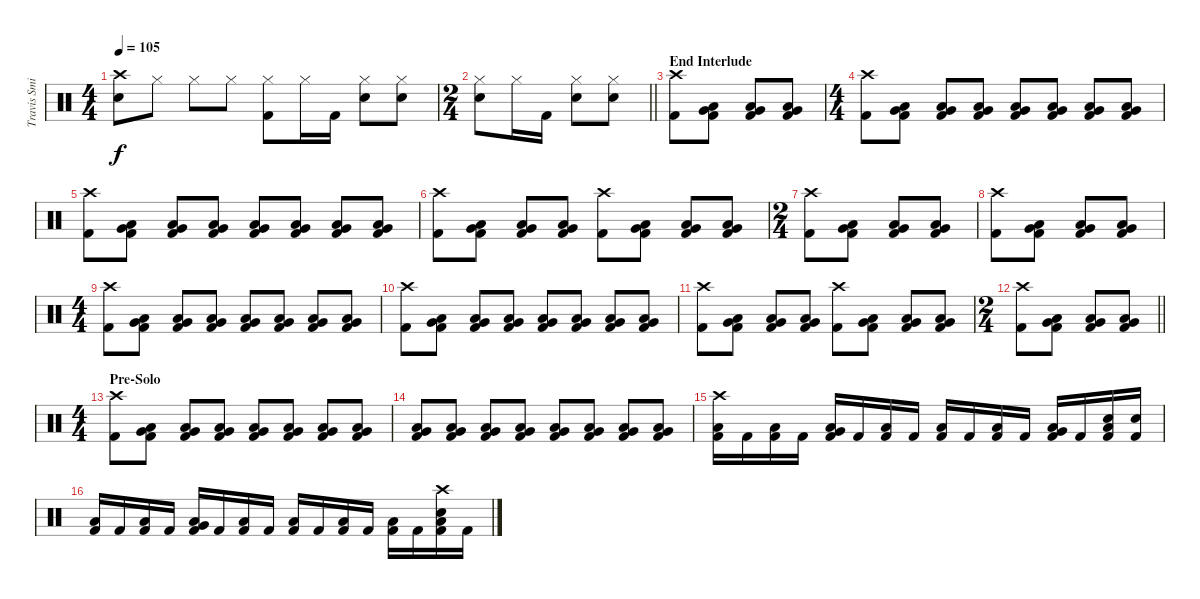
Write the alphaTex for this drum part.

\track ("Travis Smith (Drums)" "Travis Smi") {instrument percussion}
\staff {score}
\articulation defaults
\ts (4 4)
\tempo 105
\clef neutral
\ks c
("Crash high (hit)" "Electric Snare (hit)").8{dy f} "Hi-Hat (closed)".8 "Hi-Hat (closed)".8 "Hi-Hat (closed)".8 ("Hi-Hat (closed)" "Kick (hit) 2").8 "Hi-Hat (closed)".16 "Kick (hit) 2".16 ("Hi-Hat (closed)" "Electric Snare (hit)").8 ("Hi-Hat (closed)" "Electric Snare (hit)").8 |
\ts (2 4)
\barLineRight lightlight
("Hi-Hat (closed)" "Electric Snare (hit)").8 "Hi-Hat (closed)".16 "Kick (hit) 2".16 ("Hi-Hat (closed)" "Electric Snare (hit)").8 ("Hi-Hat (closed)" "Electric Snare (hit)").8 |
\section ("" "End Interlude")
("Crash high (hit)" "Kick (hit) 2").8 ("Low Floor Tom (hit)" "Kick (hit) 2" "Very Low Tom (hit)").8 ("Low Floor Tom (hit)" "Kick (hit) 2" "Very Low Tom (hit)").8 ("Low Floor Tom (hit)" "Kick (hit) 2" "Very Low Tom (hit)").8 |
\ts (4 4)
("Crash high (hit)" "Kick (hit) 2").8 ("Low Floor Tom (hit)" "Kick (hit) 2" "Very Low Tom (hit)").8 ("Low Floor Tom (hit)" "Kick (hit) 2" "Very Low Tom (hit)").8 ("Low Floor Tom (hit)" "Kick (hit) 2" "Very Low Tom (hit)").8 ("Low Floor Tom (hit)" "Kick (hit) 2" "Very Low Tom (hit)").8 ("Low Floor Tom (hit)" "Kick (hit) 2" "Very Low Tom (hit)").8 ("Low Floor Tom (hit)" "Kick (hit) 2" "Very Low Tom (hit)").8 ("Low Floor Tom (hit)" "Kick (hit) 2" "Very Low Tom (hit)").8 |
("Crash high (hit)" "Kick (hit) 2").8 ("Low Floor Tom (hit)" "Kick (hit) 2" "Very Low Tom (hit)").8 ("Low Floor Tom (hit)" "Kick (hit) 2" "Very Low Tom (hit)").8 ("Low Floor Tom (hit)" "Kick (hit) 2" "Very Low Tom (hit)").8 ("Low Floor Tom (hit)" "Kick (hit) 2" "Very Low Tom (hit)").8 ("Low Floor Tom (hit)" "Kick (hit) 2" "Very Low Tom (hit)").8 ("Low Floor Tom (hit)" "Kick (hit) 2" "Very Low Tom (hit)").8 ("Low Floor Tom (hit)" "Kick (hit) 2" "Very Low Tom (hit)").8 |
("Crash high (hit)" "Kick (hit) 2").8 ("Low Floor Tom (hit)" "Kick (hit) 2" "Very Low Tom (hit)").8 ("Low Floor Tom (hit)" "Kick (hit) 2" "Very Low Tom (hit)").8 ("Low Floor Tom (hit)" "Kick (hit) 2" "Very Low Tom (hit)").8 ("Crash high (hit)" "Kick (hit) 2").8 ("Low Floor Tom (hit)" "Kick (hit) 2" "Very Low Tom (hit)").8 ("Low Floor Tom (hit)" "Kick (hit) 2" "Very Low Tom (hit)").8 ("Low Floor Tom (hit)" "Kick (hit) 2" "Very Low Tom (hit)").8 |
\ts (2 4)
("Crash high (hit)" "Kick (hit) 2").8 ("Low Floor Tom (hit)" "Kick (hit) 2" "Very Low Tom (hit)").8 ("Low Floor Tom (hit)" "Kick (hit) 2" "Very Low Tom (hit)").8 ("Low Floor Tom (hit)" "Kick (hit) 2" "Very Low Tom (hit)").8 |
("Crash high (hit)" "Kick (hit) 2").8 ("Low Floor Tom (hit)" "Kick (hit) 2" "Very Low Tom (hit)").8 ("Low Floor Tom (hit)" "Kick (hit) 2" "Very Low Tom (hit)").8 ("Low Floor Tom (hit)" "Kick (hit) 2" "Very Low Tom (hit)").8 |
\ts (4 4)
("Crash high (hit)" "Kick (hit) 2").8 ("Low Floor Tom (hit)" "Kick (hit) 2" "Very Low Tom (hit)").8 ("Low Floor Tom (hit)" "Kick (hit) 2" "Very Low Tom (hit)").8 ("Low Floor Tom (hit)" "Kick (hit) 2" "Very Low Tom (hit)").8 ("Low Floor Tom (hit)" "Kick (hit) 2" "Very Low Tom (hit)").8 ("Low Floor Tom (hit)" "Kick (hit) 2" "Very Low Tom (hit)").8 ("Low Floor Tom (hit)" "Kick (hit) 2" "Very Low Tom (hit)").8 ("Low Floor Tom (hit)" "Kick (hit) 2" "Very Low Tom (hit)").8 |
("Crash high (hit)" "Kick (hit) 2").8 ("Low Floor Tom (hit)" "Kick (hit) 2" "Very Low Tom (hit)").8 ("Low Floor Tom (hit)" "Kick (hit) 2" "Very Low Tom (hit)").8 ("Low Floor Tom (hit)" "Kick (hit) 2" "Very Low Tom (hit)").8 ("Low Floor Tom (hit)" "Kick (hit) 2" "Very Low Tom (hit)").8 ("Low Floor Tom (hit)" "Kick (hit) 2" "Very Low Tom (hit)").8 ("Low Floor Tom (hit)" "Kick (hit) 2" "Very Low Tom (hit)").8 ("Low Floor Tom (hit)" "Kick (hit) 2" "Very Low Tom (hit)").8 |
("Crash high (hit)" "Kick (hit) 2").8 ("Low Floor Tom (hit)" "Kick (hit) 2" "Very Low Tom (hit)").8 ("Low Floor Tom (hit)" "Kick (hit) 2" "Very Low Tom (hit)").8 ("Low Floor Tom (hit)" "Kick (hit) 2" "Very Low Tom (hit)").8 ("Crash high (hit)" "Kick (hit) 2").8 ("Low Floor Tom (hit)" "Kick (hit) 2" "Very Low Tom (hit)").8 ("Low Floor Tom (hit)" "Kick (hit) 2" "Very Low Tom (hit)").8 ("Low Floor Tom (hit)" "Kick (hit) 2" "Very Low Tom (hit)").8 |
\ts (2 4)
\barLineRight lightlight
("Crash high (hit)" "Kick (hit) 2").8 ("Low Floor Tom (hit)" "Kick (hit) 2" "Very Low Tom (hit)").8 ("Low Floor Tom (hit)" "Kick (hit) 2" "Very Low Tom (hit)").8 ("Low Floor Tom (hit)" "Kick (hit) 2" "Very Low Tom (hit)").8 |
\ts (4 4)
\section ("" "Pre-Solo")
("Crash high (hit)" "Kick (hit) 2").8 ("Low Floor Tom (hit)" "Very Low Tom (hit)" "Kick (hit) 2").8 ("Low Floor Tom (hit)" "Very Low Tom (hit)" "Kick (hit) 2").8 ("Low Floor Tom (hit)" "Very Low Tom (hit)" "Kick (hit) 2").8 ("Low Floor Tom (hit)" "Very Low Tom (hit)" "Kick (hit) 2").8 ("Low Floor Tom (hit)" "Very Low Tom (hit)" "Kick (hit) 2").8 ("Low Floor Tom (hit)" "Very Low Tom (hit)" "Kick (hit) 2").8 ("Low Floor Tom (hit)" "Very Low Tom (hit)" "Kick (hit) 2").8 |
("Low Floor Tom (hit)" "Very Low Tom (hit)" "Kick (hit) 2").8 ("Low Floor Tom (hit)" "Very Low Tom (hit)" "Kick (hit) 2").8 ("Low Floor Tom (hit)" "Very Low Tom (hit)" "Kick (hit) 2").8 ("Low Floor Tom (hit)" "Very Low Tom (hit)" "Kick (hit) 2").8 ("Low Floor Tom (hit)" "Very Low Tom (hit)" "Kick (hit) 2").8 ("Low Floor Tom (hit)" "Very Low Tom (hit)" "Kick (hit) 2").8 ("Low Floor Tom (hit)" "Very Low Tom (hit)" "Kick (hit) 2").8 ("Low Floor Tom (hit)" "Very Low Tom (hit)" "Kick (hit) 2").8 |
("Crash high (hit)" "Kick (hit) 2" "Low Floor Tom (hit)").16 "Kick (hit) 2".16 ("Low Floor Tom (hit)" "Kick (hit) 2").16 "Kick (hit) 2".16 ("Low Floor Tom (hit)" "Very Low Tom (hit)" "Kick (hit) 2").16 "Kick (hit) 2".16 ("Low Floor Tom (hit)" "Kick (hit) 2").16 "Kick (hit) 2".16 ("Low Floor Tom (hit)" "Kick (hit) 2").16 "Kick (hit) 2".16 ("Low Floor Tom (hit)" "Kick (hit) 2").16 "Kick (hit) 2".16 ("Low Floor Tom (hit)" "Very Low Tom (hit)" "Kick (hit) 2").16 "Kick (hit) 2".16 ("Electric Snare (hit)" "Low Floor Tom (hit)" "Kick (hit) 2").16 ("Electric Snare (hit)" "Kick (hit) 2").16 |
("Low Floor Tom (hit)" "Kick (hit) 2").16 "Kick (hit) 2".16 ("Low Floor Tom (hit)" "Kick (hit) 2").16 "Kick (hit) 2".16 ("Low Floor Tom (hit)" "Very Low Tom (hit)" "Kick (hit) 2").16 "Kick (hit) 2".16 ("Low Floor Tom (hit)" "Kick (hit) 2").16 "Kick (hit) 2".16 ("Low Floor Tom (hit)" "Kick (hit) 2").16 "Kick (hit) 2".16 ("Low Floor Tom (hit)" "Kick (hit) 2").16 "Kick (hit) 2".16 ("Low Floor Tom (hit)" "Kick (hit) 2").16 "Kick (hit) 2".16 ("Crash high (hit)" "Electric Snare (hit)" "Low Floor Tom (hit)" "Kick (hit) 2").16 "Kick (hit) 2".16
